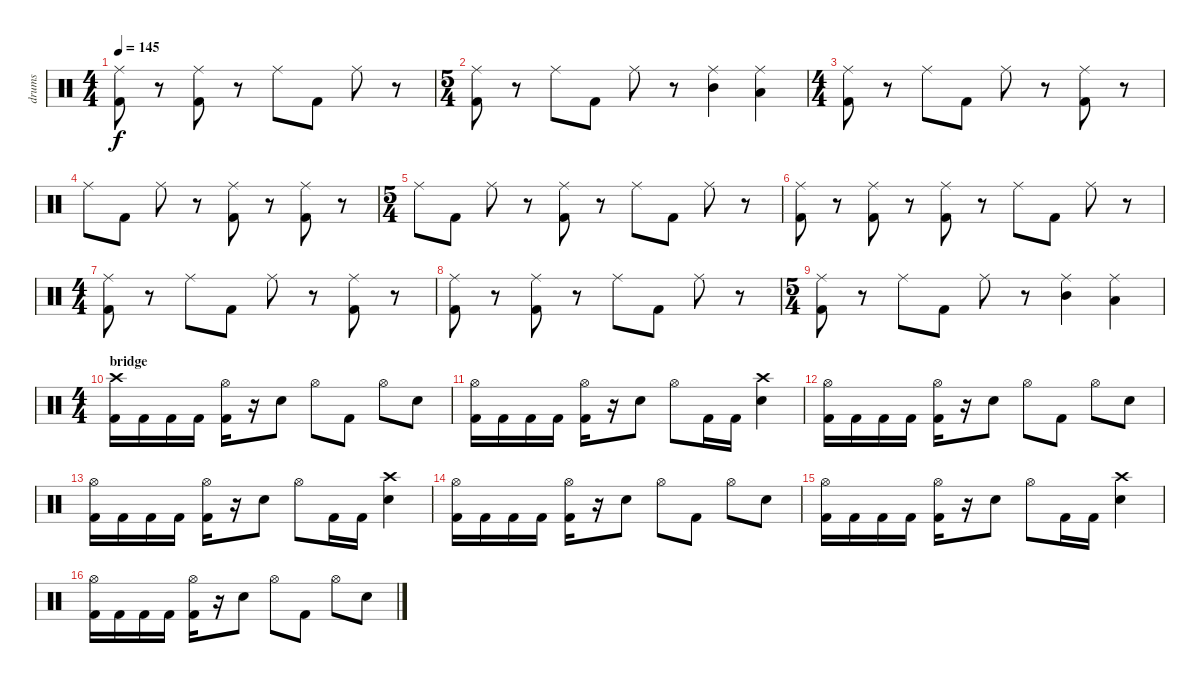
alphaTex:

\track ("drums" "drums") {instrument percussion}
\staff {score}
\articulation defaults
\ts (4 4)
\tempo 145
\clef neutral
\ks c
("Kick (hit) 2" "Ride (middle)").8{dy f} r.8 ("Kick (hit) 2" "Ride (middle)").8 r.8 "Ride (middle)".8 "Kick (hit) 2".8 "Ride (middle)".8 r.8 |
\ts (5 4)
("Kick (hit) 2" "Ride (middle)").8 r.8 "Ride (middle)".8 "Kick (hit) 2".8 "Ride (middle)".8 r.8 ("Mid Tom (hit)" "Ride (middle)").4 ("Low Tom (hit)" "Ride (middle)").4 |
\ts (4 4)
("Kick (hit) 2" "Ride (middle)").8 r.8 "Ride (middle)".8 "Kick (hit) 2".8 "Ride (middle)".8 r.8 ("Kick (hit) 2" "Ride (middle)").8 r.8 |
"Ride (middle)".8 "Kick (hit) 2".8 "Ride (middle)".8 r.8 ("Kick (hit) 2" "Ride (middle)").8 r.8 ("Kick (hit) 2" "Ride (middle)").8 r.8 |
\ts (5 4)
"Ride (middle)".8 "Kick (hit) 2".8 "Ride (middle)".8 r.8 ("Kick (hit) 2" "Ride (middle)").8 r.8 "Ride (middle)".8 "Kick (hit) 2".8 "Ride (middle)".8 r.8 |
("Kick (hit) 2" "Ride (middle)").8 r.8 ("Kick (hit) 2" "Ride (middle)").8 r.8 ("Kick (hit) 2" "Ride (middle)").8 r.8 "Ride (middle)".8 "Kick (hit) 2".8 "Ride (middle)".8 r.8 |
\ts (4 4)
("Kick (hit) 2" "Ride (middle)").8 r.8 "Ride (middle)".8 "Kick (hit) 2".8 "Ride (middle)".8 r.8 ("Kick (hit) 2" "Ride (middle)").8 r.8 |
("Kick (hit) 2" "Ride (middle)").8 r.8 ("Kick (hit) 2" "Ride (middle)").8 r.8 "Ride (middle)".8 "Kick (hit) 2".8 "Ride (middle)".8 r.8 |
\ts (5 4)
("Kick (hit) 2" "Ride (middle)").8 r.8 "Ride (middle)".8 "Kick (hit) 2".8 "Ride (middle)".8 r.8 ("Mid Tom (hit)" "Ride (middle)").4 ("Low Tom (hit)" "Ride (middle)").4 |
\ts (4 4)
\section ("" "bridge")
("Kick (hit) 2" "Crash high (hit)").16 "Kick (hit) 2".16 "Kick (hit) 2".16 "Kick (hit) 2".16 ("Kick (hit) 2" "Hi-Hat (open)").16 r.16 "Snare (hit) 2".8 "Hi-Hat (open)".8 "Kick (hit) 2".8 "Hi-Hat (open)".8 "Snare (hit) 2".8 |
("Kick (hit) 2" "Hi-Hat (open)").16 "Kick (hit) 2".16 "Kick (hit) 2".16 "Kick (hit) 2".16 ("Kick (hit) 2" "Hi-Hat (open)").16 r.16 "Snare (hit) 2".8 "Hi-Hat (open)".8 "Kick (hit) 2".16 "Kick (hit) 2".16 ("Snare (hit) 2" "Crash high (hit)").4 |
("Kick (hit) 2" "Hi-Hat (open)").16 "Kick (hit) 2".16 "Kick (hit) 2".16 "Kick (hit) 2".16 ("Kick (hit) 2" "Hi-Hat (open)").16 r.16 "Snare (hit) 2".8 "Hi-Hat (open)".8 "Kick (hit) 2".8 "Hi-Hat (open)".8 "Snare (hit) 2".8 |
("Kick (hit) 2" "Hi-Hat (open)").16 "Kick (hit) 2".16 "Kick (hit) 2".16 "Kick (hit) 2".16 ("Kick (hit) 2" "Hi-Hat (open)").16 r.16 "Snare (hit) 2".8 "Hi-Hat (open)".8 "Kick (hit) 2".16 "Kick (hit) 2".16 ("Snare (hit) 2" "Crash high (hit)").4 |
("Kick (hit) 2" "Hi-Hat (open)").16 "Kick (hit) 2".16 "Kick (hit) 2".16 "Kick (hit) 2".16 ("Kick (hit) 2" "Hi-Hat (open)").16 r.16 "Snare (hit) 2".8 "Hi-Hat (open)".8 "Kick (hit) 2".8 "Hi-Hat (open)".8 "Snare (hit) 2".8 |
("Kick (hit) 2" "Hi-Hat (open)").16 "Kick (hit) 2".16 "Kick (hit) 2".16 "Kick (hit) 2".16 ("Kick (hit) 2" "Hi-Hat (open)").16 r.16 "Snare (hit) 2".8 "Hi-Hat (open)".8 "Kick (hit) 2".16 "Kick (hit) 2".16 ("Snare (hit) 2" "Crash high (hit)").4 |
("Kick (hit) 2" "Hi-Hat (open)").16 "Kick (hit) 2".16 "Kick (hit) 2".16 "Kick (hit) 2".16 ("Kick (hit) 2" "Hi-Hat (open)").16 r.16 "Snare (hit) 2".8 "Hi-Hat (open)".8 "Kick (hit) 2".8 "Hi-Hat (open)".8 "Snare (hit) 2".8
